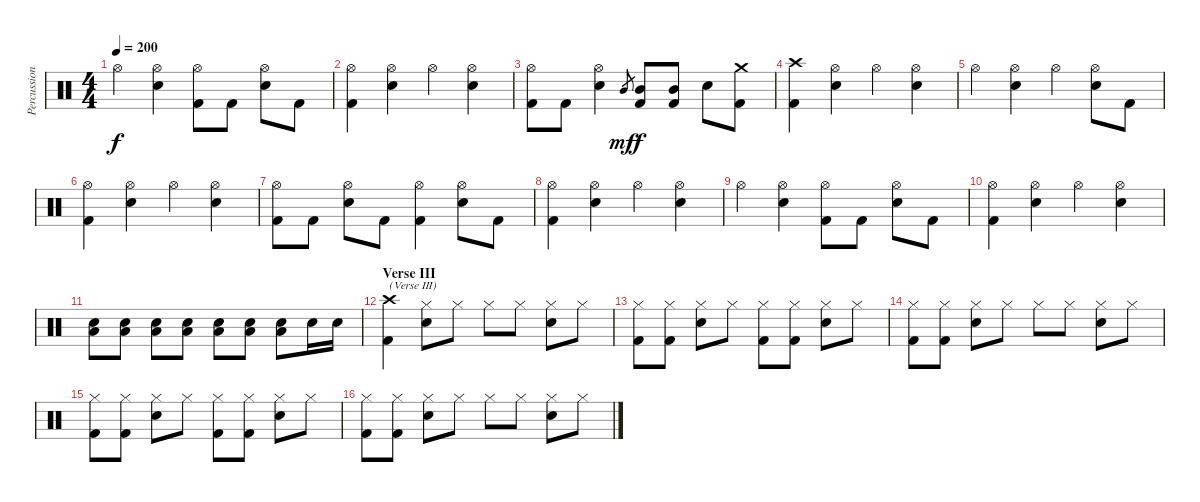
\track ("Percussion" "Percussion") {instrument percussion}
\staff {score}
\articulation defaults
\ts (4 4)
\tempo 200
\clef neutral
\ks c "Hi-Hat (open)".4{dy f}
("Hi-Hat (open)" "Electric Snare (hit)").4 ("Hi-Hat (open)" "Kick (hit) 2").8 "Kick (hit) 2".8 ("Hi-Hat (open)" "Electric Snare (hit)").8 "Kick (hit) 2".8 |
("Hi-Hat (open)" "Kick (hit) 2").4 ("Hi-Hat (open)" "Electric Snare (hit)").4 "Hi-Hat (open)".4 ("Hi-Hat (open)" "Electric Snare (hit)").4 |
("Hi-Hat (open)" "Kick (hit) 2").8 "Kick (hit) 2".8 ("Hi-Hat (open)" "Electric Snare (hit)").4 "Mid Tom (hit)".8{gr dy mf} ("Mid Tom (hit)" "Kick (hit) 2").8{dy f} ("Mid Tom (hit)" "Kick (hit) 2").8 "Electric Snare (hit)".8 ("Crash medium (hit)" "Kick (hit) 2").8 |
("Crash high (hit)" "Kick (hit) 2").4 ("Hi-Hat (open)" "Electric Snare (hit)").4 "Hi-Hat (open)".4 ("Hi-Hat (open)" "Electric Snare (hit)").4 |
"Hi-Hat (open)".4 ("Hi-Hat (open)" "Electric Snare (hit)").4 "Hi-Hat (open)".4 ("Hi-Hat (open)" "Electric Snare (hit)").8 "Kick (hit) 2".8 |
("Hi-Hat (open)" "Kick (hit) 2").4 ("Hi-Hat (open)" "Electric Snare (hit)").4 "Hi-Hat (open)".4 ("Hi-Hat (open)" "Electric Snare (hit)").4 |
("Hi-Hat (open)" "Kick (hit) 2").8 "Kick (hit) 2".8 ("Hi-Hat (open)" "Electric Snare (hit)").8 "Kick (hit) 2".8 ("Hi-Hat (open)" "Kick (hit) 2").4 ("Hi-Hat (open)" "Electric Snare (hit)").8 "Kick (hit) 2".8 |
("Hi-Hat (open)" "Kick (hit) 2").4 ("Hi-Hat (open)" "Electric Snare (hit)").4 "Hi-Hat (open)".4 ("Hi-Hat (open)" "Electric Snare (hit)").4 |
"Hi-Hat (open)".4 ("Hi-Hat (open)" "Electric Snare (hit)").4 ("Hi-Hat (open)" "Kick (hit) 2").8 "Kick (hit) 2".8 ("Hi-Hat (open)" "Electric Snare (hit)").8 "Kick (hit) 2".8 |
("Hi-Hat (open)" "Kick (hit) 2").4 ("Hi-Hat (open)" "Electric Snare (hit)").4 "Hi-Hat (open)".4 ("Hi-Hat (open)" "Electric Snare (hit)").4 |
("Electric Snare (hit)" "Low Floor Tom (hit)").8 ("Electric Snare (hit)" "Low Floor Tom (hit)").8 ("Electric Snare (hit)" "Low Floor Tom (hit)").8 ("Electric Snare (hit)" "Low Floor Tom (hit)").8 ("Electric Snare (hit)" "Low Floor Tom (hit)").8 ("Electric Snare (hit)" "Low Floor Tom (hit)").8 ("Electric Snare (hit)" "Low Floor Tom (hit)").8 "Electric Snare (hit)".16 "Electric Snare (hit)".16 |
\section ("" "Verse III")
("Crash high (hit)" "Kick (hit) 2").4{txt "(Verse III)"} ("Hi-Hat (closed)" "Electric Snare (hit)").8 "Hi-Hat (closed)".8 "Hi-Hat (closed)".8 "Hi-Hat (closed)".8 ("Hi-Hat (closed)" "Electric Snare (hit)").8 "Hi-Hat (closed)".8 |
("Hi-Hat (closed)" "Kick (hit) 2").8 ("Hi-Hat (closed)" "Kick (hit) 2").8 ("Hi-Hat (closed)" "Electric Snare (hit)").8 "Hi-Hat (closed)".8 ("Hi-Hat (closed)" "Kick (hit) 2").8 ("Hi-Hat (closed)" "Kick (hit) 2").8 ("Hi-Hat (closed)" "Electric Snare (hit)").8 "Hi-Hat (closed)".8 |
("Hi-Hat (closed)" "Kick (hit) 2").8 ("Hi-Hat (closed)" "Kick (hit) 2").8 ("Hi-Hat (closed)" "Electric Snare (hit)").8 "Hi-Hat (closed)".8 "Hi-Hat (closed)".8 "Hi-Hat (closed)".8 ("Hi-Hat (closed)" "Electric Snare (hit)").8 "Hi-Hat (closed)".8 |
("Hi-Hat (closed)" "Kick (hit) 2").8 ("Hi-Hat (closed)" "Kick (hit) 2").8 ("Hi-Hat (closed)" "Electric Snare (hit)").8 "Hi-Hat (closed)".8 ("Hi-Hat (closed)" "Kick (hit) 2").8 ("Hi-Hat (closed)" "Kick (hit) 2").8 ("Hi-Hat (closed)" "Electric Snare (hit)").8 "Hi-Hat (closed)".8 |
("Hi-Hat (closed)" "Kick (hit) 2").8 ("Hi-Hat (closed)" "Kick (hit) 2").8 ("Hi-Hat (closed)" "Electric Snare (hit)").8 "Hi-Hat (closed)".8 "Hi-Hat (closed)".8 "Hi-Hat (closed)".8 ("Hi-Hat (closed)" "Electric Snare (hit)").8 "Hi-Hat (closed)".8
